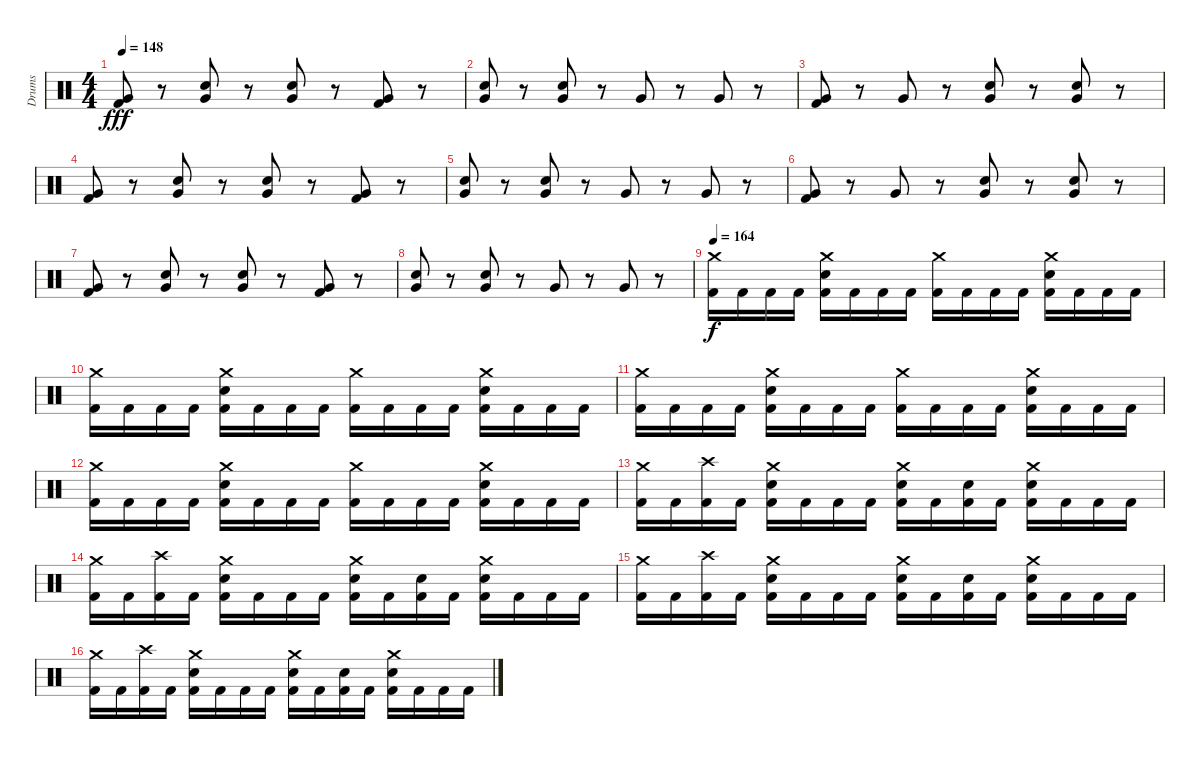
\track ("Drums" "Drums") {instrument percussion}
\staff {score}
\articulation defaults
\ts (4 4)
\tempo 148
\clef neutral
\ks c
("Very Low Tom (hit)" "Kick (hit) 2").8{dy fff} r.8 ("Very Low Tom (hit)" "Snare (hit) 2").8 r.8 ("Very Low Tom (hit)" "Snare (hit) 2").8 r.8 ("Very Low Tom (hit)" "Kick (hit) 2").8 r.8 |
("Very Low Tom (hit)" "Snare (hit) 2").8 r.8 ("Very Low Tom (hit)" "Snare (hit) 2").8 r.8 "Very Low Tom (hit)".8 r.8 "Very Low Tom (hit)".8 r.8 |
("Very Low Tom (hit)" "Kick (hit) 2").8 r.8 "Very Low Tom (hit)".8 r.8 ("Very Low Tom (hit)" "Snare (hit) 2").8 r.8 ("Very Low Tom (hit)" "Snare (hit) 2").8 r.8 |
("Very Low Tom (hit)" "Kick (hit) 2").8 r.8 ("Very Low Tom (hit)" "Snare (hit) 2").8 r.8 ("Very Low Tom (hit)" "Snare (hit) 2").8 r.8 ("Very Low Tom (hit)" "Kick (hit) 2").8 r.8 |
("Very Low Tom (hit)" "Snare (hit) 2").8 r.8 ("Very Low Tom (hit)" "Snare (hit) 2").8 r.8 "Very Low Tom (hit)".8 r.8 "Very Low Tom (hit)".8 r.8 |
("Very Low Tom (hit)" "Kick (hit) 2").8 r.8 "Very Low Tom (hit)".8 r.8 ("Very Low Tom (hit)" "Snare (hit) 2").8 r.8 ("Very Low Tom (hit)" "Snare (hit) 2").8 r.8 |
("Very Low Tom (hit)" "Kick (hit) 2").8 r.8 ("Very Low Tom (hit)" "Snare (hit) 2").8 r.8 ("Very Low Tom (hit)" "Snare (hit) 2").8 r.8 ("Very Low Tom (hit)" "Kick (hit) 2").8 r.8 |
("Very Low Tom (hit)" "Snare (hit) 2").8 r.8 ("Very Low Tom (hit)" "Snare (hit) 2").8 r.8 "Very Low Tom (hit)".8 r.8 "Very Low Tom (hit)".8 r.8 |
\tempo 164
("Crash medium (hit)" "Kick (hit) 2").16{dy f} "Kick (hit) 2".16 "Kick (hit) 2".16 "Kick (hit) 2".16 ("Crash medium (hit)" "Snare (hit) 2" "Kick (hit) 2").16 "Kick (hit) 2".16 "Kick (hit) 2".16 "Kick (hit) 2".16 ("Crash medium (hit)" "Kick (hit) 2").16 "Kick (hit) 2".16 "Kick (hit) 2".16 "Kick (hit) 2".16 ("Crash medium (hit)" "Snare (hit) 2" "Kick (hit) 2").16 "Kick (hit) 2".16 "Kick (hit) 2".16 "Kick (hit) 2".16 |
("Crash medium (hit)" "Kick (hit) 2").16 "Kick (hit) 2".16 "Kick (hit) 2".16 "Kick (hit) 2".16 ("Crash medium (hit)" "Snare (hit) 2" "Kick (hit) 2").16 "Kick (hit) 2".16 "Kick (hit) 2".16 "Kick (hit) 2".16 ("Crash medium (hit)" "Kick (hit) 2").16 "Kick (hit) 2".16 "Kick (hit) 2".16 "Kick (hit) 2".16 ("Crash medium (hit)" "Snare (hit) 2" "Kick (hit) 2").16 "Kick (hit) 2".16 "Kick (hit) 2".16 "Kick (hit) 2".16 |
("Crash medium (hit)" "Kick (hit) 2").16 "Kick (hit) 2".16 "Kick (hit) 2".16 "Kick (hit) 2".16 ("Crash medium (hit)" "Snare (hit) 2" "Kick (hit) 2").16 "Kick (hit) 2".16 "Kick (hit) 2".16 "Kick (hit) 2".16 ("Crash medium (hit)" "Kick (hit) 2").16 "Kick (hit) 2".16 "Kick (hit) 2".16 "Kick (hit) 2".16 ("Crash medium (hit)" "Snare (hit) 2" "Kick (hit) 2").16 "Kick (hit) 2".16 "Kick (hit) 2".16 "Kick (hit) 2".16 |
("Crash medium (hit)" "Kick (hit) 2").16 "Kick (hit) 2".16 "Kick (hit) 2".16 "Kick (hit) 2".16 ("Crash medium (hit)" "Snare (hit) 2" "Kick (hit) 2").16 "Kick (hit) 2".16 "Kick (hit) 2".16 "Kick (hit) 2".16 ("Crash medium (hit)" "Kick (hit) 2").16 "Kick (hit) 2".16 "Kick (hit) 2".16 "Kick (hit) 2".16 ("Crash medium (hit)" "Snare (hit) 2" "Kick (hit) 2").16 "Kick (hit) 2".16 "Kick (hit) 2".16 "Kick (hit) 2".16 |
("Crash medium (hit)" "Kick (hit) 2").16 "Kick (hit) 2".16 ("Crash high (hit)" "Kick (hit) 2").16 "Kick (hit) 2".16 ("Crash medium (hit)" "Snare (hit) 2" "Kick (hit) 2").16 "Kick (hit) 2".16 "Kick (hit) 2".16 "Kick (hit) 2".16 ("Crash medium (hit)" "Snare (hit) 2" "Kick (hit) 2").16 "Kick (hit) 2".16 ("Snare (hit) 2" "Kick (hit) 2").16 "Kick (hit) 2".16 ("Crash medium (hit)" "Snare (hit) 2" "Kick (hit) 2").16 "Kick (hit) 2".16 "Kick (hit) 2".16 "Kick (hit) 2".16 |
("Crash medium (hit)" "Kick (hit) 2").16 "Kick (hit) 2".16 ("Crash high (hit)" "Kick (hit) 2").16 "Kick (hit) 2".16 ("Crash medium (hit)" "Snare (hit) 2" "Kick (hit) 2").16 "Kick (hit) 2".16 "Kick (hit) 2".16 "Kick (hit) 2".16 ("Crash medium (hit)" "Snare (hit) 2" "Kick (hit) 2").16 "Kick (hit) 2".16 ("Snare (hit) 2" "Kick (hit) 2").16 "Kick (hit) 2".16 ("Crash medium (hit)" "Snare (hit) 2" "Kick (hit) 2").16 "Kick (hit) 2".16 "Kick (hit) 2".16 "Kick (hit) 2".16 |
("Crash medium (hit)" "Kick (hit) 2").16 "Kick (hit) 2".16 ("Crash high (hit)" "Kick (hit) 2").16 "Kick (hit) 2".16 ("Crash medium (hit)" "Snare (hit) 2" "Kick (hit) 2").16 "Kick (hit) 2".16 "Kick (hit) 2".16 "Kick (hit) 2".16 ("Crash medium (hit)" "Snare (hit) 2" "Kick (hit) 2").16 "Kick (hit) 2".16 ("Snare (hit) 2" "Kick (hit) 2").16 "Kick (hit) 2".16 ("Crash medium (hit)" "Snare (hit) 2" "Kick (hit) 2").16 "Kick (hit) 2".16 "Kick (hit) 2".16 "Kick (hit) 2".16 |
("Crash medium (hit)" "Kick (hit) 2").16 "Kick (hit) 2".16 ("Crash high (hit)" "Kick (hit) 2").16 "Kick (hit) 2".16 ("Crash medium (hit)" "Snare (hit) 2" "Kick (hit) 2").16 "Kick (hit) 2".16 "Kick (hit) 2".16 "Kick (hit) 2".16 ("Crash medium (hit)" "Snare (hit) 2" "Kick (hit) 2").16 "Kick (hit) 2".16 ("Snare (hit) 2" "Kick (hit) 2").16 "Kick (hit) 2".16 ("Crash medium (hit)" "Snare (hit) 2" "Kick (hit) 2").16 "Kick (hit) 2".16 "Kick (hit) 2".16 "Kick (hit) 2".16
